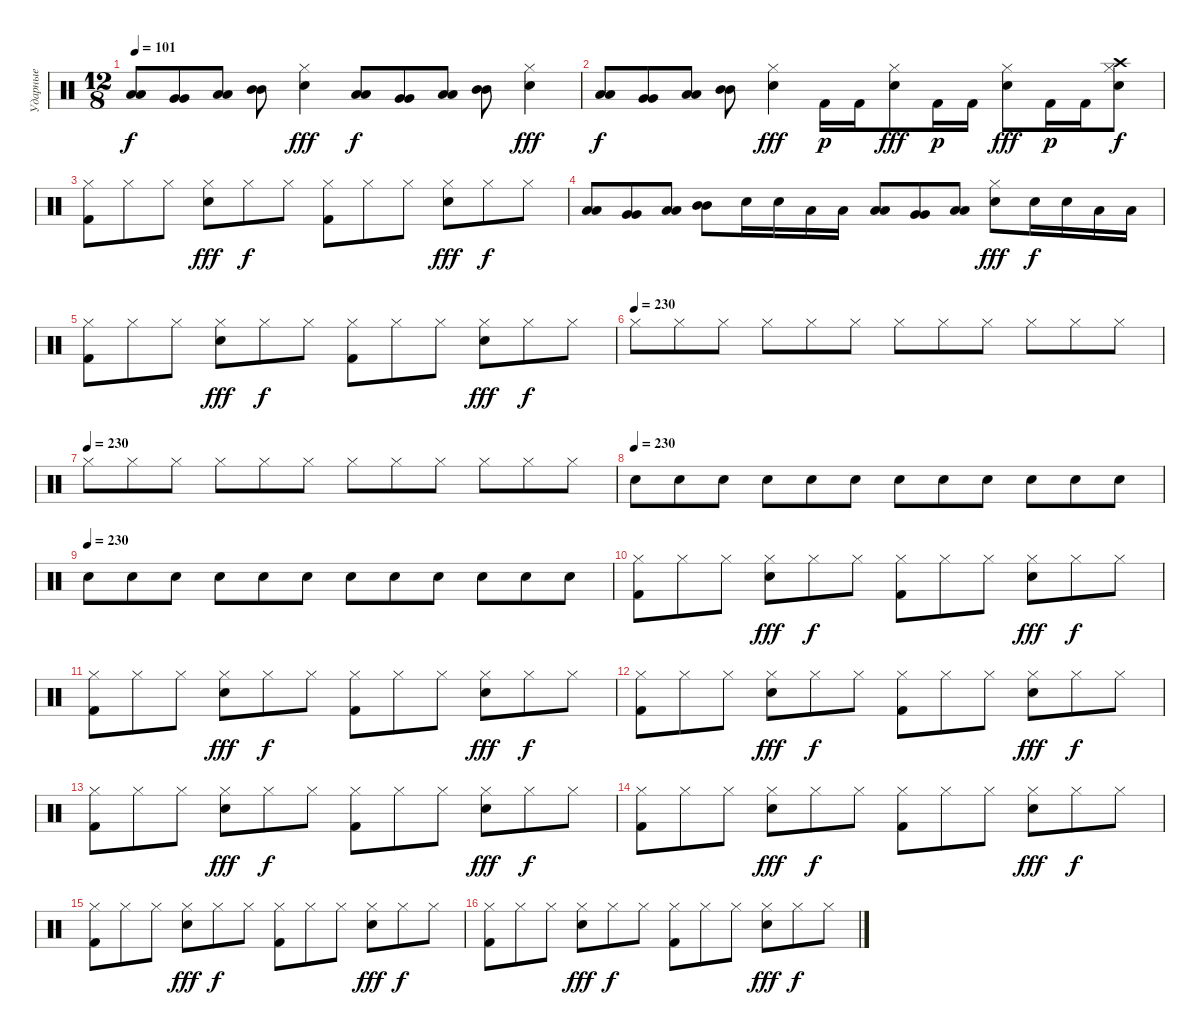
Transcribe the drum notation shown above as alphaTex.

\track ("Ударные" "Ударные") {instrument percussion}
\staff {score}
\articulation defaults
\ts (12 8)
\tempo 101
\clef neutral
\ks c
("Low Floor Tom (hit)" "Low Floor Tom (hit)").8{dy f} ("Very Low Tom (hit)" "Very Low Tom (hit)").8 ("Low Tom (hit)" "Low Tom (hit)").8 ("Mid Tom (hit)" "Mid Tom (hit)").8 ("Hi-Hat (closed)" "Snare (hit) 2").4{dy fff} ("Low Floor Tom (hit)" "Low Floor Tom (hit)").8{dy f} ("Very Low Tom (hit)" "Very Low Tom (hit)").8 ("Low Tom (hit)" "Low Tom (hit)").8 ("Mid Tom (hit)" "Mid Tom (hit)").8 ("Hi-Hat (closed)" "Snare (hit) 2").4{dy fff} |
("Low Floor Tom (hit)" "Low Floor Tom (hit)").8{dy f} ("Very Low Tom (hit)" "Very Low Tom (hit)").8 ("Low Tom (hit)" "Low Tom (hit)").8 ("Mid Tom (hit)" "Mid Tom (hit)").8 ("Hi-Hat (closed)" "Snare (hit) 2").4{dy fff} "Kick (hit) 2".16{dy p} "Kick (hit) 2".16 ("Hi-Hat (closed)" "Snare (hit) 2").8{dy fff} "Kick (hit) 2".16{dy p} "Kick (hit) 2".16 ("Hi-Hat (closed)" "Snare (hit) 2").8{dy fff} "Kick (hit) 2".16{dy p} "Kick (hit) 2".16 ("Hi-Hat (closed)" "Snare (hit) 2" "Crash high (hit)").8{dy f} |
("Hi-Hat (closed)" "Kick (hit) 2").8 "Hi-Hat (closed)".8 "Hi-Hat (closed)".8 ("Hi-Hat (closed)" "Snare (hit) 2").8{dy fff} "Hi-Hat (closed)".8{dy f} "Hi-Hat (closed)".8 ("Hi-Hat (closed)" "Kick (hit) 2").8 "Hi-Hat (closed)".8 "Hi-Hat (closed)".8 ("Hi-Hat (closed)" "Snare (hit) 2").8{dy fff} "Hi-Hat (closed)".8{dy f} "Hi-Hat (closed)".8 |
("Low Floor Tom (hit)" "Low Floor Tom (hit)").8 ("Very Low Tom (hit)" "Very Low Tom (hit)").8 ("Low Tom (hit)" "Low Tom (hit)").8 ("Mid Tom (hit)" "Mid Tom (hit)").8 "Snare (hit) 2".16 "Snare (hit) 2".16 "Low Floor Tom (hit)".16 "Low Tom (hit)".16 ("Low Floor Tom (hit)" "Low Floor Tom (hit)").8 ("Very Low Tom (hit)" "Very Low Tom (hit)").8 ("Low Tom (hit)" "Low Tom (hit)").8 ("Hi-Hat (closed)" "Snare (hit) 2").8{dy fff} "Snare (hit) 2".16{dy f} "Snare (hit) 2".16 "Low Floor Tom (hit)".16 "Low Tom (hit)".16 |
("Hi-Hat (closed)" "Kick (hit) 2").8 "Hi-Hat (closed)".8 "Hi-Hat (closed)".8 ("Hi-Hat (closed)" "Snare (hit) 2").8{dy fff} "Hi-Hat (closed)".8{dy f} "Hi-Hat (closed)".8 ("Hi-Hat (closed)" "Kick (hit) 2").8 "Hi-Hat (closed)".8 "Hi-Hat (closed)".8 ("Hi-Hat (closed)" "Snare (hit) 2").8{dy fff} "Hi-Hat (closed)".8{dy f} "Hi-Hat (closed)".8 |
\tempo (230)
"Hi-Hat (closed)".8 "Hi-Hat (closed)".8 "Hi-Hat (closed)".8 "Hi-Hat (closed)".8 "Hi-Hat (closed)".8 "Hi-Hat (closed)".8 "Hi-Hat (closed)".8 "Hi-Hat (closed)".8 "Hi-Hat (closed)".8 "Hi-Hat (closed)".8 "Hi-Hat (closed)".8 "Hi-Hat (closed)".8 |
\tempo (230)
"Hi-Hat (closed)".8 "Hi-Hat (closed)".8 "Hi-Hat (closed)".8 "Hi-Hat (closed)".8 "Hi-Hat (closed)".8 "Hi-Hat (closed)".8 "Hi-Hat (closed)".8 "Hi-Hat (closed)".8 "Hi-Hat (closed)".8 "Hi-Hat (closed)".8 "Hi-Hat (closed)".8 "Hi-Hat (closed)".8 |
\tempo (230)
"Snare (hit) 2".8 "Snare (hit) 2".8 "Snare (hit) 2".8 "Snare (hit) 2".8 "Snare (hit) 2".8 "Snare (hit) 2".8 "Snare (hit) 2".8 "Snare (hit) 2".8 "Snare (hit) 2".8 "Snare (hit) 2".8 "Snare (hit) 2".8 "Snare (hit) 2".8 |
\tempo (230)
"Snare (hit) 2".8 "Snare (hit) 2".8 "Snare (hit) 2".8 "Snare (hit) 2".8 "Snare (hit) 2".8 "Snare (hit) 2".8 "Snare (hit) 2".8 "Snare (hit) 2".8 "Snare (hit) 2".8 "Snare (hit) 2".8 "Snare (hit) 2".8 "Snare (hit) 2".8 |
("Hi-Hat (closed)" "Kick (hit) 2").8 "Hi-Hat (closed)".8 "Hi-Hat (closed)".8 ("Hi-Hat (closed)" "Snare (hit) 2").8{dy fff} "Hi-Hat (closed)".8{dy f} "Hi-Hat (closed)".8 ("Hi-Hat (closed)" "Kick (hit) 2").8 "Hi-Hat (closed)".8 "Hi-Hat (closed)".8 ("Hi-Hat (closed)" "Snare (hit) 2").8{dy fff} "Hi-Hat (closed)".8{dy f} "Hi-Hat (closed)".8 |
("Hi-Hat (closed)" "Kick (hit) 2").8 "Hi-Hat (closed)".8 "Hi-Hat (closed)".8 ("Hi-Hat (closed)" "Snare (hit) 2").8{dy fff} "Hi-Hat (closed)".8{dy f} "Hi-Hat (closed)".8 ("Hi-Hat (closed)" "Kick (hit) 2").8 "Hi-Hat (closed)".8 "Hi-Hat (closed)".8 ("Hi-Hat (closed)" "Snare (hit) 2").8{dy fff} "Hi-Hat (closed)".8{dy f} "Hi-Hat (closed)".8 |
("Hi-Hat (closed)" "Kick (hit) 2").8 "Hi-Hat (closed)".8 "Hi-Hat (closed)".8 ("Hi-Hat (closed)" "Snare (hit) 2").8{dy fff} "Hi-Hat (closed)".8{dy f} "Hi-Hat (closed)".8 ("Hi-Hat (closed)" "Kick (hit) 2").8 "Hi-Hat (closed)".8 "Hi-Hat (closed)".8 ("Hi-Hat (closed)" "Snare (hit) 2").8{dy fff} "Hi-Hat (closed)".8{dy f} "Hi-Hat (closed)".8 |
("Hi-Hat (closed)" "Kick (hit) 2").8 "Hi-Hat (closed)".8 "Hi-Hat (closed)".8 ("Hi-Hat (closed)" "Snare (hit) 2").8{dy fff} "Hi-Hat (closed)".8{dy f} "Hi-Hat (closed)".8 ("Hi-Hat (closed)" "Kick (hit) 2").8 "Hi-Hat (closed)".8 "Hi-Hat (closed)".8 ("Hi-Hat (closed)" "Snare (hit) 2").8{dy fff} "Hi-Hat (closed)".8{dy f} "Hi-Hat (closed)".8 |
("Hi-Hat (closed)" "Kick (hit) 2").8 "Hi-Hat (closed)".8 "Hi-Hat (closed)".8 ("Hi-Hat (closed)" "Snare (hit) 2").8{dy fff} "Hi-Hat (closed)".8{dy f} "Hi-Hat (closed)".8 ("Hi-Hat (closed)" "Kick (hit) 2").8 "Hi-Hat (closed)".8 "Hi-Hat (closed)".8 ("Hi-Hat (closed)" "Snare (hit) 2").8{dy fff} "Hi-Hat (closed)".8{dy f} "Hi-Hat (closed)".8 |
("Hi-Hat (closed)" "Kick (hit) 2").8 "Hi-Hat (closed)".8 "Hi-Hat (closed)".8 ("Hi-Hat (closed)" "Snare (hit) 2").8{dy fff} "Hi-Hat (closed)".8{dy f} "Hi-Hat (closed)".8 ("Hi-Hat (closed)" "Kick (hit) 2").8 "Hi-Hat (closed)".8 "Hi-Hat (closed)".8 ("Hi-Hat (closed)" "Snare (hit) 2").8{dy fff} "Hi-Hat (closed)".8{dy f} "Hi-Hat (closed)".8 |
("Hi-Hat (closed)" "Kick (hit) 2").8 "Hi-Hat (closed)".8 "Hi-Hat (closed)".8 ("Hi-Hat (closed)" "Snare (hit) 2").8{dy fff} "Hi-Hat (closed)".8{dy f} "Hi-Hat (closed)".8 ("Hi-Hat (closed)" "Kick (hit) 2").8 "Hi-Hat (closed)".8 "Hi-Hat (closed)".8 ("Hi-Hat (closed)" "Snare (hit) 2").8{dy fff} "Hi-Hat (closed)".8{dy f} "Hi-Hat (closed)".8
